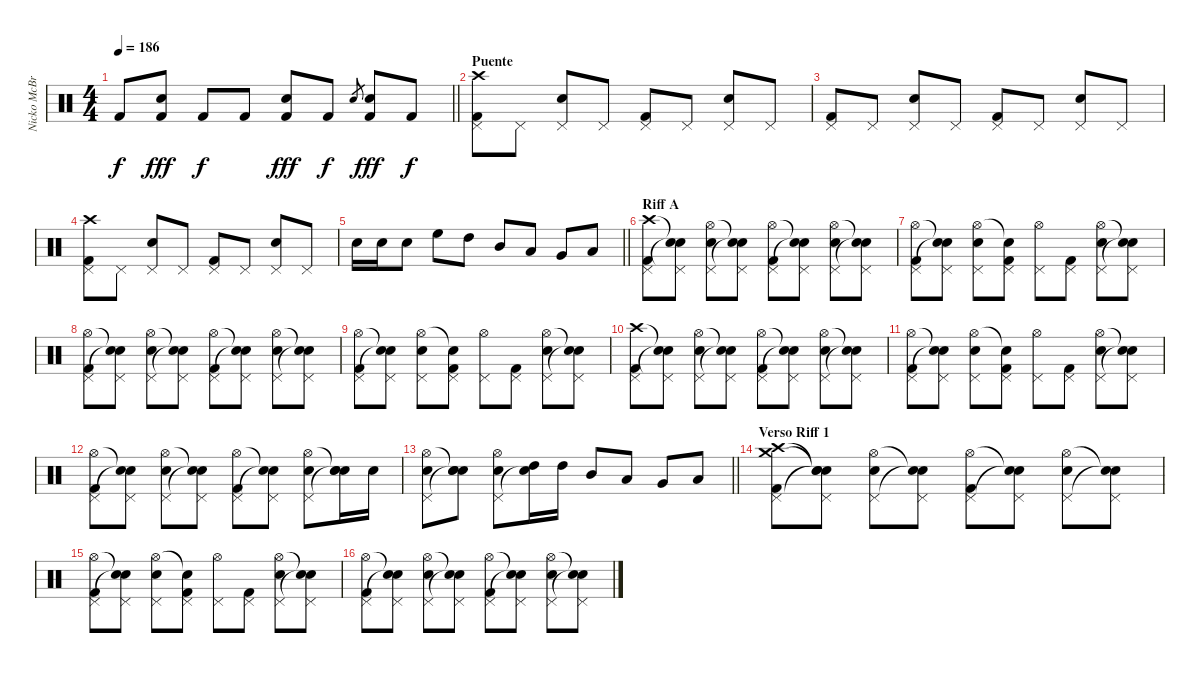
\track ("Nicko McBrain" "Nicko McBr") {instrument percussion}
\staff {score}
\articulation defaults
\ts (4 4)
\tempo 186
\clef neutral
\barLineRight lightlight
\ks c "Kick (hit) 2".8{dy f}
("Snare (hit) 2" "Kick (hit) 2").8{dy fff} "Kick (hit) 2".8{dy f} "Kick (hit) 2".8 ("Snare (hit) 2" "Kick (hit) 2").8{dy fff} "Kick (hit) 2".8{dy f} "Snare (hit) 2".8{gr} ("Snare (hit) 2" "Kick (hit) 2").8{dy fff} "Kick (hit) 2".8{dy f} |
\section ("" "Puente")
("Kick (hit) 2" "Pedal Hi-Hat (hit)" "Crash high (hit)").8 "Pedal Hi-Hat (hit)".8 ("Snare (hit) 2" "Pedal Hi-Hat (hit)").8 "Pedal Hi-Hat (hit)".8 ("Kick (hit) 2" "Pedal Hi-Hat (hit)").8 "Pedal Hi-Hat (hit)".8 ("Snare (hit) 2" "Pedal Hi-Hat (hit)").8 "Pedal Hi-Hat (hit)".8 |
("Kick (hit) 2" "Pedal Hi-Hat (hit)").8 "Pedal Hi-Hat (hit)".8 ("Snare (hit) 2" "Pedal Hi-Hat (hit)").8 "Pedal Hi-Hat (hit)".8 ("Kick (hit) 2" "Pedal Hi-Hat (hit)").8 "Pedal Hi-Hat (hit)".8 ("Snare (hit) 2" "Pedal Hi-Hat (hit)").8 "Pedal Hi-Hat (hit)".8 |
("Kick (hit) 2" "Pedal Hi-Hat (hit)" "Crash high (hit)").8 "Pedal Hi-Hat (hit)".8 ("Snare (hit) 2" "Pedal Hi-Hat (hit)").8 "Pedal Hi-Hat (hit)".8 ("Kick (hit) 2" "Pedal Hi-Hat (hit)").8 "Pedal Hi-Hat (hit)".8 ("Snare (hit) 2" "Pedal Hi-Hat (hit)").8 "Pedal Hi-Hat (hit)".8 |
\barLineRight lightlight "Snare (hit) 2".16 "Snare (hit) 2".16 "Snare (hit) 2".8 "High Floor Tom (hit)".8 "High Tom (hit)".8 "Mid Tom (hit)".8 "Low Tom (hit)".8 "Very Low Tom (hit)".8 "Low Floor Tom (hit)".8
|
\section ("" "Riff A")
("Kick (hit) 2" "Pedal Hi-Hat (hit)" "Crash high (hit)").8 ("Pedal Hi-Hat (hit)" "Snare (hit)"{t} "Snare (hit)"{t}).8 ("Snare (hit) 2" "Pedal Hi-Hat (hit)" "Hi-Hat (open)").8 ("Pedal Hi-Hat (hit)" "Snare (hit)"{t} "Snare (hit)"{t}).8 ("Kick (hit) 2" "Pedal Hi-Hat (hit)" "Hi-Hat (open)").8 ("Pedal Hi-Hat (hit)" "Snare (hit)"{t} "Snare (hit)"{t}).8 ("Snare (hit) 2" "Pedal Hi-Hat (hit)" "Hi-Hat (open)").8 ("Pedal Hi-Hat (hit)" "Snare (hit)"{t} "Snare (hit)"{t}).8 |
("Kick (hit) 2" "Pedal Hi-Hat (hit)" "Hi-Hat (open)").8 ("Pedal Hi-Hat (hit)" "Snare (hit)"{t} "Snare (hit)"{t}).8 ("Snare (hit) 2" "Pedal Hi-Hat (hit)" "Hi-Hat (open)").8 ("Kick (hit) 2" "Pedal Hi-Hat (hit)" "Snare (hit)"{t}).8 ("Pedal Hi-Hat (hit)" "Hi-Hat (open)").8 ("Kick (hit) 2" "Pedal Hi-Hat (hit)").8 ("Snare (hit) 2" "Pedal Hi-Hat (hit)" "Hi-Hat (open)").8 ("Pedal Hi-Hat (hit)" "Snare (hit)"{t} "Snare (hit)"{t}).8 |
("Kick (hit) 2" "Pedal Hi-Hat (hit)" "Hi-Hat (open)").8 ("Pedal Hi-Hat (hit)" "Snare (hit)"{t} "Snare (hit)"{t}).8 ("Snare (hit) 2" "Pedal Hi-Hat (hit)" "Hi-Hat (open)").8 ("Pedal Hi-Hat (hit)" "Snare (hit)"{t} "Snare (hit)"{t}).8 ("Kick (hit) 2" "Pedal Hi-Hat (hit)" "Hi-Hat (open)").8 ("Pedal Hi-Hat (hit)" "Snare (hit)"{t} "Snare (hit)"{t}).8 ("Snare (hit) 2" "Pedal Hi-Hat (hit)" "Hi-Hat (open)").8 ("Pedal Hi-Hat (hit)" "Snare (hit)"{t} "Snare (hit)"{t}).8 |
("Kick (hit) 2" "Pedal Hi-Hat (hit)" "Hi-Hat (open)").8 ("Pedal Hi-Hat (hit)" "Snare (hit)"{t} "Snare (hit)"{t}).8 ("Snare (hit) 2" "Pedal Hi-Hat (hit)" "Hi-Hat (open)").8 ("Kick (hit) 2" "Pedal Hi-Hat (hit)" "Snare (hit)"{t}).8 ("Pedal Hi-Hat (hit)" "Hi-Hat (open)").8 ("Kick (hit) 2" "Pedal Hi-Hat (hit)").8 ("Snare (hit) 2" "Pedal Hi-Hat (hit)" "Hi-Hat (open)").8 ("Pedal Hi-Hat (hit)" "Snare (hit)"{t} "Snare (hit)"{t}).8 |
("Kick (hit) 2" "Pedal Hi-Hat (hit)" "Crash high (hit)").8 ("Pedal Hi-Hat (hit)" "Snare (hit)"{t} "Snare (hit)"{t}).8 ("Snare (hit) 2" "Pedal Hi-Hat (hit)" "Hi-Hat (open)").8 ("Pedal Hi-Hat (hit)" "Snare (hit)"{t} "Snare (hit)"{t}).8 ("Kick (hit) 2" "Pedal Hi-Hat (hit)" "Hi-Hat (open)").8 ("Pedal Hi-Hat (hit)" "Snare (hit)"{t} "Snare (hit)"{t}).8 ("Snare (hit) 2" "Pedal Hi-Hat (hit)" "Hi-Hat (open)").8 ("Pedal Hi-Hat (hit)" "Snare (hit)"{t} "Snare (hit)"{t}).8 |
("Kick (hit) 2" "Pedal Hi-Hat (hit)" "Hi-Hat (open)").8 ("Pedal Hi-Hat (hit)" "Snare (hit)"{t} "Snare (hit)"{t}).8 ("Snare (hit) 2" "Pedal Hi-Hat (hit)" "Hi-Hat (open)").8 ("Kick (hit) 2" "Pedal Hi-Hat (hit)" "Snare (hit)"{t}).8 ("Pedal Hi-Hat (hit)" "Hi-Hat (open)").8 ("Kick (hit) 2" "Pedal Hi-Hat (hit)").8 ("Snare (hit) 2" "Pedal Hi-Hat (hit)" "Hi-Hat (open)").8 ("Pedal Hi-Hat (hit)" "Snare (hit)"{t} "Snare (hit)"{t}).8 |
("Kick (hit) 2" "Pedal Hi-Hat (hit)" "Hi-Hat (open)").8 ("Pedal Hi-Hat (hit)" "Snare (hit)"{t} "Snare (hit)"{t}).8 ("Snare (hit) 2" "Pedal Hi-Hat (hit)" "Hi-Hat (open)").8 ("Pedal Hi-Hat (hit)" "Snare (hit)"{t} "Snare (hit)"{t}).8 ("Kick (hit) 2" "Pedal Hi-Hat (hit)" "Hi-Hat (open)").8 ("Pedal Hi-Hat (hit)" "Snare (hit)"{t} "Snare (hit)"{t}).8 ("Snare (hit) 2" "Pedal Hi-Hat (hit)" "Hi-Hat (open)").8 ("Snare (hit) 2" "Snare (hit)"{t} "Snare (hit)"{t}).16 "Snare (hit) 2".16 |
\barLineRight lightlight
("Snare (hit) 2" "Pedal Hi-Hat (hit)" "Hi-Hat (open)").8 ("Snare (hit) 2" "Snare (hit)"{t} "Snare (hit)"{t}).8 ("Snare (hit) 2" "Pedal Hi-Hat (hit)" "Hi-Hat (open)").8 ("High Tom (hit)" "Snare (hit)"{t}).16 "High Tom (hit)".16 "Mid Tom (hit)".8 "Low Tom (hit)".8 "Very Low Tom (hit)".8 "Low Floor Tom (hit)".8 |
\section ("" "Verso Riff 1")
("Kick (hit) 2" "Pedal Hi-Hat (hit)" "Crash high (hit)" "Crash medium (hit)").8 ("Pedal Hi-Hat (hit)" "Snare (hit)"{t} "Snare (hit)"{t} "Snare (hit)"{t}).8 ("Snare (hit) 2" "Pedal Hi-Hat (hit)" "Hi-Hat (open)").8 ("Pedal Hi-Hat (hit)" "Snare (hit)"{t} "Snare (hit)"{t}).8 ("Kick (hit) 2" "Pedal Hi-Hat (hit)" "Hi-Hat (open)").8 ("Pedal Hi-Hat (hit)" "Snare (hit)"{t} "Snare (hit)"{t}).8 ("Snare (hit) 2" "Pedal Hi-Hat (hit)" "Hi-Hat (open)").8 ("Pedal Hi-Hat (hit)" "Snare (hit)"{t} "Snare (hit)"{t}).8 |
("Kick (hit) 2" "Pedal Hi-Hat (hit)" "Hi-Hat (open)").8 ("Pedal Hi-Hat (hit)" "Snare (hit)"{t} "Snare (hit)"{t}).8 ("Snare (hit) 2" "Pedal Hi-Hat (hit)" "Hi-Hat (open)").8 ("Kick (hit) 2" "Pedal Hi-Hat (hit)" "Snare (hit)"{t}).8 ("Pedal Hi-Hat (hit)" "Hi-Hat (open)").8 ("Kick (hit) 2" "Pedal Hi-Hat (hit)").8 ("Snare (hit) 2" "Pedal Hi-Hat (hit)" "Hi-Hat (open)").8 ("Pedal Hi-Hat (hit)" "Snare (hit)"{t} "Snare (hit)"{t}).8 |
("Kick (hit) 2" "Pedal Hi-Hat (hit)" "Hi-Hat (open)").8 ("Pedal Hi-Hat (hit)" "Snare (hit)"{t} "Snare (hit)"{t}).8 ("Snare (hit) 2" "Pedal Hi-Hat (hit)" "Hi-Hat (open)").8 ("Pedal Hi-Hat (hit)" "Snare (hit)"{t} "Snare (hit)"{t}).8 ("Kick (hit) 2" "Pedal Hi-Hat (hit)" "Hi-Hat (open)").8 ("Pedal Hi-Hat (hit)" "Snare (hit)"{t} "Snare (hit)"{t}).8 ("Snare (hit) 2" "Pedal Hi-Hat (hit)" "Hi-Hat (open)").8 ("Pedal Hi-Hat (hit)" "Snare (hit)"{t} "Snare (hit)"{t}).8
